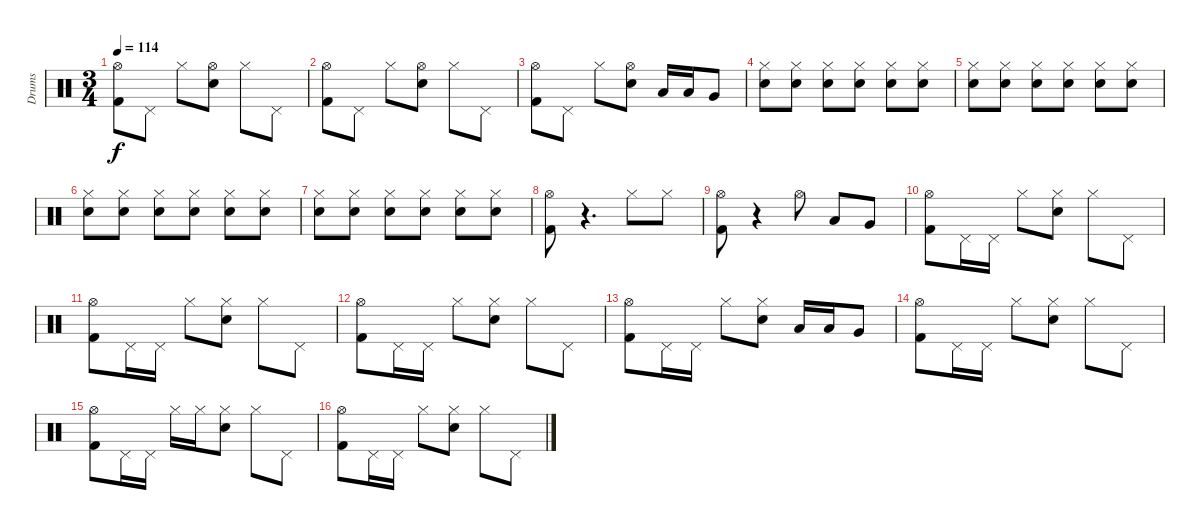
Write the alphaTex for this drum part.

\track ("Drums" "Drums") {instrument percussion}
\staff {score}
\articulation defaults
\ts (3 4)
\tempo 114
\clef neutral
\ks c
("Hi-Hat (open)" "Kick (hit) 2").8{dy f} "Pedal Hi-Hat (hit)".8 "Hi-Hat (closed)".8 ("Hi-Hat (open)" "Electric Snare (hit)").8 "Hi-Hat (closed)".8 "Pedal Hi-Hat (hit)".8 |
("Hi-Hat (open)" "Kick (hit) 2").8 "Pedal Hi-Hat (hit)".8 "Hi-Hat (closed)".8 ("Hi-Hat (open)" "Electric Snare (hit)").8 "Hi-Hat (closed)".8 "Pedal Hi-Hat (hit)".8 |
("Hi-Hat (open)" "Kick (hit) 2").8 "Pedal Hi-Hat (hit)".8 "Hi-Hat (closed)".8 ("Hi-Hat (open)" "Electric Snare (hit)").8 "Low Tom (hit)".16 "Low Tom (hit)".16 "Very Low Tom (hit)".8 |
("Hi-Hat (closed)" "Electric Snare (hit)").8 ("Hi-Hat (closed)" "Electric Snare (hit)").8 ("Hi-Hat (closed)" "Electric Snare (hit)").8 ("Hi-Hat (closed)" "Electric Snare (hit)").8 ("Hi-Hat (closed)" "Electric Snare (hit)").8 ("Hi-Hat (closed)" "Electric Snare (hit)").8 |
("Hi-Hat (closed)" "Electric Snare (hit)").8 ("Hi-Hat (closed)" "Electric Snare (hit)").8 ("Hi-Hat (closed)" "Electric Snare (hit)").8 ("Hi-Hat (closed)" "Electric Snare (hit)").8 ("Hi-Hat (closed)" "Electric Snare (hit)").8 ("Hi-Hat (closed)" "Electric Snare (hit)").8 |
("Hi-Hat (closed)" "Electric Snare (hit)").8 ("Hi-Hat (closed)" "Electric Snare (hit)").8 ("Hi-Hat (closed)" "Electric Snare (hit)").8 ("Hi-Hat (closed)" "Electric Snare (hit)").8 ("Hi-Hat (closed)" "Electric Snare (hit)").8 ("Hi-Hat (closed)" "Electric Snare (hit)").8 |
("Hi-Hat (closed)" "Electric Snare (hit)").8 ("Hi-Hat (closed)" "Electric Snare (hit)").8 ("Hi-Hat (closed)" "Electric Snare (hit)").8 ("Hi-Hat (closed)" "Electric Snare (hit)").8 ("Hi-Hat (closed)" "Electric Snare (hit)").8 ("Hi-Hat (closed)" "Electric Snare (hit)").8 |
("Hi-Hat (open)" "Kick (hit) 2").8 r.4{d} "Hi-Hat (closed)".8 "Hi-Hat (closed)".8 |
("Hi-Hat (open)" "Kick (hit) 2").8 r.4 "Hi-Hat (open)".8 "Low Tom (hit)".8 "Very Low Tom (hit)".8 |
("Hi-Hat (open)" "Kick (hit) 2").8 "Pedal Hi-Hat (hit)".16 "Pedal Hi-Hat (hit)".16 "Hi-Hat (closed)".8 ("Hi-Hat (closed)" "Electric Snare (hit)").8 "Hi-Hat (closed)".8 "Pedal Hi-Hat (hit)".8 |
("Hi-Hat (open)" "Kick (hit) 2").8 "Pedal Hi-Hat (hit)".16 "Pedal Hi-Hat (hit)".16 "Hi-Hat (closed)".8 ("Hi-Hat (closed)" "Electric Snare (hit)").8 "Hi-Hat (closed)".8 "Pedal Hi-Hat (hit)".8 |
("Hi-Hat (open)" "Kick (hit) 2").8 "Pedal Hi-Hat (hit)".16 "Pedal Hi-Hat (hit)".16 "Hi-Hat (closed)".8 ("Hi-Hat (closed)" "Electric Snare (hit)").8 "Hi-Hat (closed)".8 "Pedal Hi-Hat (hit)".8 |
("Hi-Hat (open)" "Kick (hit) 2").8 "Pedal Hi-Hat (hit)".16 "Pedal Hi-Hat (hit)".16 "Hi-Hat (closed)".8 ("Hi-Hat (closed)" "Electric Snare (hit)").8 "Low Tom (hit)".16 "Low Tom (hit)".16 "Very Low Tom (hit)".8 |
("Hi-Hat (open)" "Kick (hit) 2").8 "Pedal Hi-Hat (hit)".16 "Pedal Hi-Hat (hit)".16 "Hi-Hat (closed)".8 ("Hi-Hat (closed)" "Electric Snare (hit)").8 "Hi-Hat (closed)".8 "Pedal Hi-Hat (hit)".8 |
("Hi-Hat (open)" "Kick (hit) 2").8 "Pedal Hi-Hat (hit)".16 "Pedal Hi-Hat (hit)".16 "Hi-Hat (closed)".16 "Hi-Hat (closed)".16 ("Hi-Hat (closed)" "Electric Snare (hit)").8 "Hi-Hat (closed)".8 "Pedal Hi-Hat (hit)".8 |
("Hi-Hat (open)" "Kick (hit) 2").8 "Pedal Hi-Hat (hit)".16 "Pedal Hi-Hat (hit)".16 "Hi-Hat (closed)".8 ("Hi-Hat (closed)" "Electric Snare (hit)").8 "Hi-Hat (closed)".8 "Pedal Hi-Hat (hit)".8
